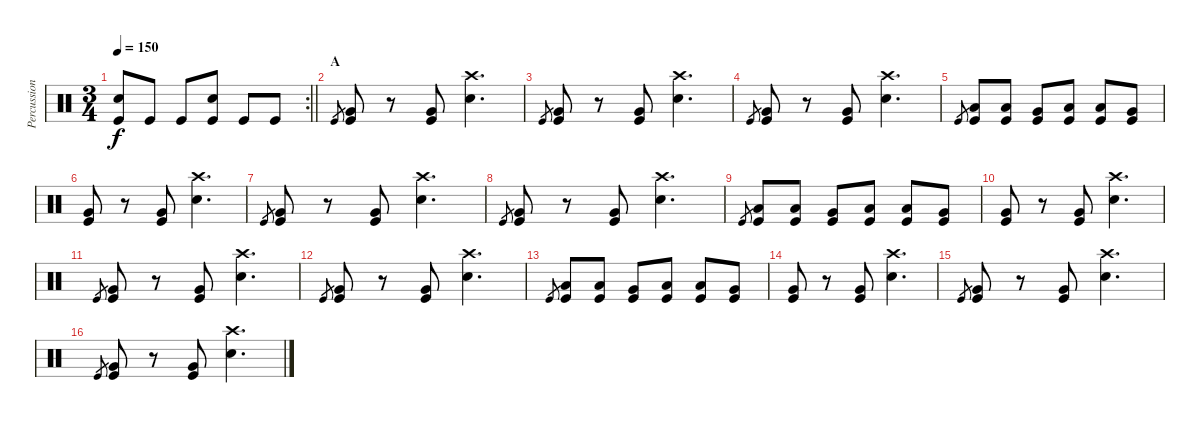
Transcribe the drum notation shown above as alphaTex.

\track ("Percussion" "Percussion") {instrument percussion}
\staff {score}
\articulation defaults
\rc 2
\ts (3 4)
\tempo 150
\clef neutral
\barLineRight lightlight
\ks c
("Snare (hit) 2" "Kick (hit)").8{dy f} "Kick (hit)".8 "Kick (hit)".8 ("Snare (hit) 2" "Kick (hit)").8 "Kick (hit)".8 "Kick (hit)".8 |
\section ("" "A")
"Kick (hit)".8{gr} ("Very Low Tom (hit)" "Kick (hit)").8 r.8 ("Very Low Tom (hit)" "Kick (hit)").8 ("Crash high (hit)" "Snare (hit) 2").4{d} |
"Kick (hit)".8{gr} ("Very Low Tom (hit)" "Kick (hit)").8 r.8 ("Very Low Tom (hit)" "Kick (hit)").8 ("Crash high (hit)" "Snare (hit) 2").4{d} |
"Kick (hit)".8{gr} ("Very Low Tom (hit)" "Kick (hit)").8 r.8 ("Very Low Tom (hit)" "Kick (hit)").8 ("Crash high (hit)" "Snare (hit) 2").4{d} |
"Kick (hit)".8{gr} ("Low Tom (hit)" "Kick (hit)").8 ("Low Tom (hit)" "Kick (hit)").8 ("Very Low Tom (hit)" "Kick (hit)").8 ("Low Tom (hit)" "Kick (hit)").8 ("Low Tom (hit)" "Kick (hit)").8 ("Very Low Tom (hit)" "Kick (hit)").8 |
("Very Low Tom (hit)" "Kick (hit)").8 r.8 ("Very Low Tom (hit)" "Kick (hit)").8 ("Crash high (hit)" "Snare (hit) 2").4{d} |
"Kick (hit)".8{gr} ("Very Low Tom (hit)" "Kick (hit)").8 r.8 ("Very Low Tom (hit)" "Kick (hit)").8 ("Crash high (hit)" "Snare (hit) 2").4{d} |
"Kick (hit)".8{gr} ("Very Low Tom (hit)" "Kick (hit)").8 r.8 ("Very Low Tom (hit)" "Kick (hit)").8 ("Crash high (hit)" "Snare (hit) 2").4{d} |
"Kick (hit)".8{gr} ("Low Tom (hit)" "Kick (hit)").8 ("Low Tom (hit)" "Kick (hit)").8 ("Very Low Tom (hit)" "Kick (hit)").8 ("Low Tom (hit)" "Kick (hit)").8 ("Low Tom (hit)" "Kick (hit)").8 ("Very Low Tom (hit)" "Kick (hit)").8 |
("Very Low Tom (hit)" "Kick (hit)").8 r.8 ("Very Low Tom (hit)" "Kick (hit)").8 ("Crash high (hit)" "Snare (hit) 2").4{d} |
"Kick (hit)".8{gr} ("Very Low Tom (hit)" "Kick (hit)").8 r.8 ("Very Low Tom (hit)" "Kick (hit)").8 ("Crash high (hit)" "Snare (hit) 2").4{d} |
"Kick (hit)".8{gr} ("Very Low Tom (hit)" "Kick (hit)").8 r.8 ("Very Low Tom (hit)" "Kick (hit)").8 ("Crash high (hit)" "Snare (hit) 2").4{d} |
"Kick (hit)".8{gr} ("Low Tom (hit)" "Kick (hit)").8 ("Low Tom (hit)" "Kick (hit)").8 ("Very Low Tom (hit)" "Kick (hit)").8 ("Low Tom (hit)" "Kick (hit)").8 ("Low Tom (hit)" "Kick (hit)").8 ("Very Low Tom (hit)" "Kick (hit)").8 |
("Very Low Tom (hit)" "Kick (hit)").8 r.8 ("Very Low Tom (hit)" "Kick (hit)").8 ("Crash high (hit)" "Snare (hit) 2").4{d} |
"Kick (hit)".8{gr} ("Very Low Tom (hit)" "Kick (hit)").8 r.8 ("Very Low Tom (hit)" "Kick (hit)").8 ("Crash high (hit)" "Snare (hit) 2").4{d} |
"Kick (hit)".8{gr} ("Very Low Tom (hit)" "Kick (hit)").8 r.8 ("Very Low Tom (hit)" "Kick (hit)").8 ("Crash high (hit)" "Snare (hit) 2").4{d}
